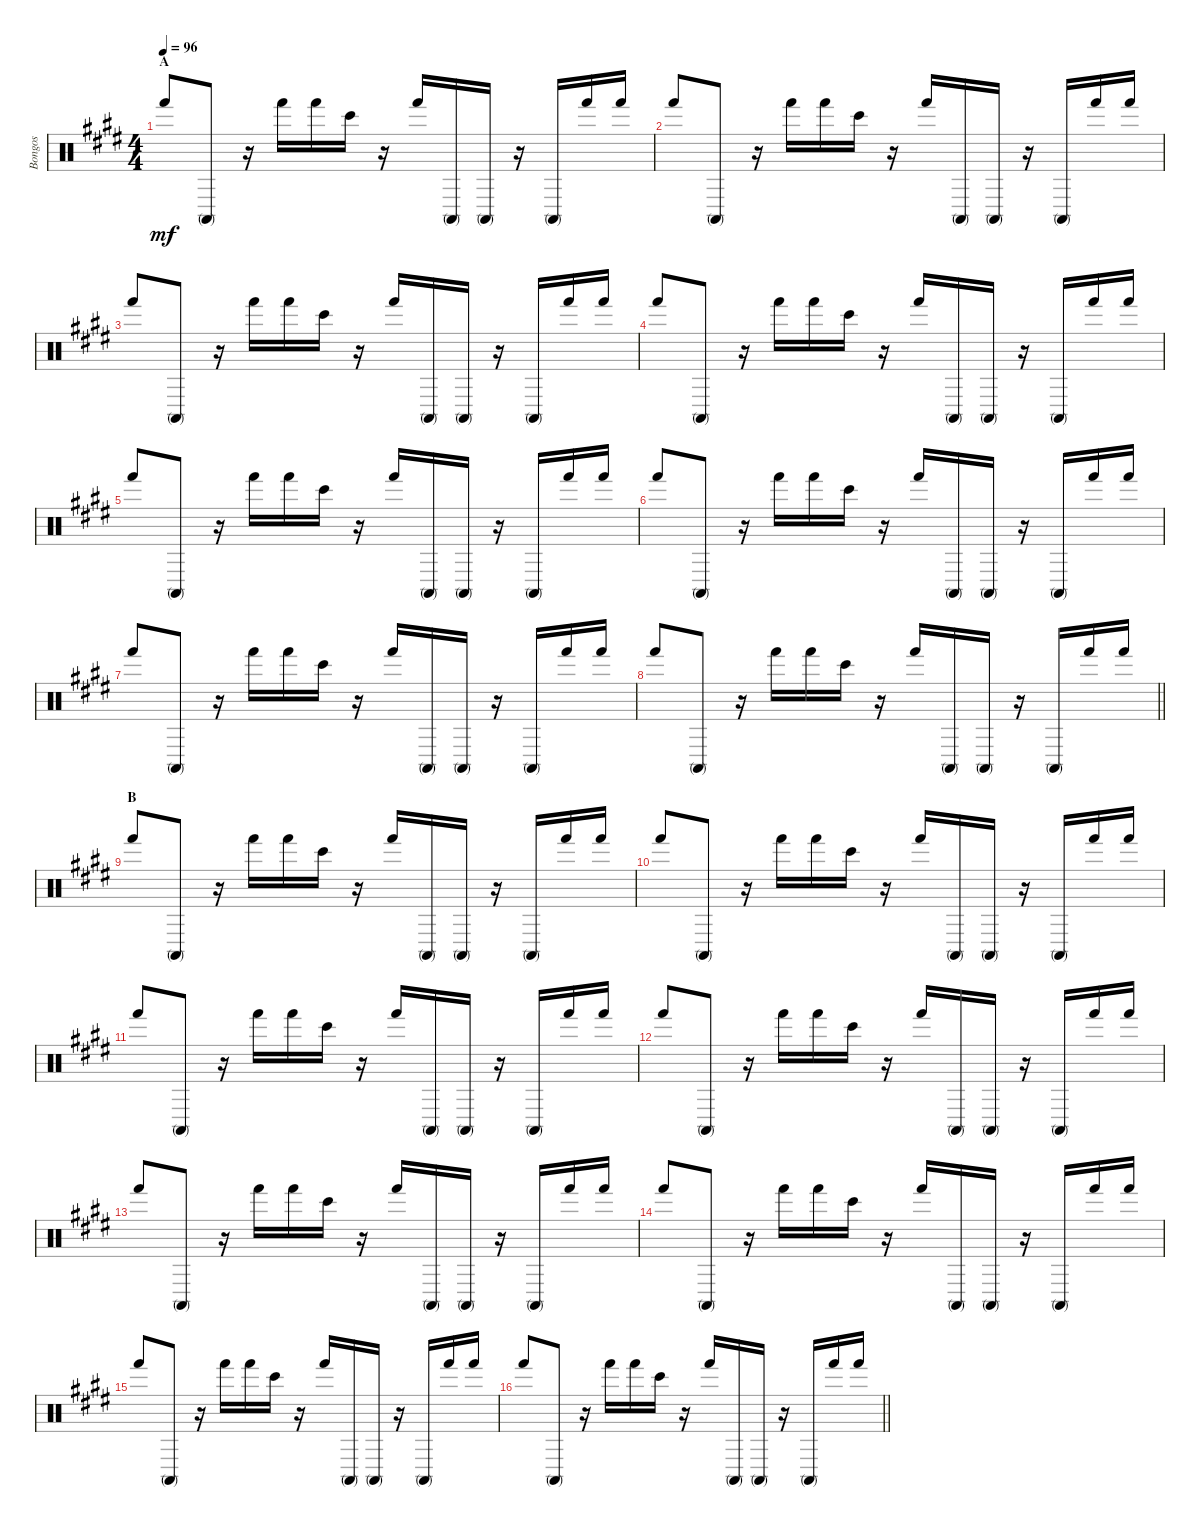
\track ("Bongos" "Bongos") {instrument percussion}
\staff {score}
\articulation defaults
\ts (4 4)
\section ("" "A")
\tempo 96
\clef neutral
\ks e "Hand (hit)".8{dy mf} "Conga high (mute)".8
r.16 "Hand (hit)".16 "Hand (hit)".16 "Bongo High (hit)".16 r.16 "Hand (hit)".16 "Conga high (mute)".16 "Conga high (mute)".16 r.16 "Conga high (mute)".16 "Hand (hit)".16 "Hand (hit)".16 |
"Hand (hit)".8 "Conga high (mute)".8 r.16 "Hand (hit)".16 "Hand (hit)".16 "Bongo High (hit)".16 r.16 "Hand (hit)".16 "Conga high (mute)".16 "Conga high (mute)".16 r.16 "Conga high (mute)".16 "Hand (hit)".16 "Hand (hit)".16 |
"Hand (hit)".8 "Conga high (mute)".8 r.16 "Hand (hit)".16 "Hand (hit)".16 "Bongo High (hit)".16 r.16 "Hand (hit)".16 "Conga high (mute)".16 "Conga high (mute)".16 r.16 "Conga high (mute)".16 "Hand (hit)".16 "Hand (hit)".16 |
"Hand (hit)".8 "Conga high (mute)".8 r.16 "Hand (hit)".16 "Hand (hit)".16 "Bongo High (hit)".16 r.16 "Hand (hit)".16 "Conga high (mute)".16 "Conga high (mute)".16 r.16 "Conga high (mute)".16 "Hand (hit)".16 "Hand (hit)".16 |
"Hand (hit)".8 "Conga high (mute)".8 r.16 "Hand (hit)".16 "Hand (hit)".16 "Bongo High (hit)".16 r.16 "Hand (hit)".16 "Conga high (mute)".16 "Conga high (mute)".16 r.16 "Conga high (mute)".16 "Hand (hit)".16 "Hand (hit)".16 |
"Hand (hit)".8 "Conga high (mute)".8 r.16 "Hand (hit)".16 "Hand (hit)".16 "Bongo High (hit)".16 r.16 "Hand (hit)".16 "Conga high (mute)".16 "Conga high (mute)".16 r.16 "Conga high (mute)".16 "Hand (hit)".16 "Hand (hit)".16 |
"Hand (hit)".8 "Conga high (mute)".8 r.16 "Hand (hit)".16 "Hand (hit)".16 "Bongo High (hit)".16 r.16 "Hand (hit)".16 "Conga high (mute)".16 "Conga high (mute)".16 r.16 "Conga high (mute)".16 "Hand (hit)".16 "Hand (hit)".16 |
\barLineRight lightlight "Hand (hit)".8 "Conga high (mute)".8
r.16 "Hand (hit)".16 "Hand (hit)".16 "Bongo High (hit)".16 r.16 "Hand (hit)".16 "Conga high (mute)".16 "Conga high (mute)".16 r.16 "Conga high (mute)".16 "Hand (hit)".16 "Hand (hit)".16 |
\section ("" "B")
"Hand (hit)".8 "Conga high (mute)".8 r.16 "Hand (hit)".16 "Hand (hit)".16 "Bongo High (hit)".16 r.16 "Hand (hit)".16 "Conga high (mute)".16 "Conga high (mute)".16 r.16 "Conga high (mute)".16 "Hand (hit)".16 "Hand (hit)".16 |
"Hand (hit)".8 "Conga high (mute)".8 r.16 "Hand (hit)".16 "Hand (hit)".16 "Bongo High (hit)".16 r.16 "Hand (hit)".16 "Conga high (mute)".16 "Conga high (mute)".16 r.16 "Conga high (mute)".16 "Hand (hit)".16 "Hand (hit)".16 |
"Hand (hit)".8 "Conga high (mute)".8 r.16 "Hand (hit)".16 "Hand (hit)".16 "Bongo High (hit)".16 r.16 "Hand (hit)".16 "Conga high (mute)".16 "Conga high (mute)".16 r.16 "Conga high (mute)".16 "Hand (hit)".16 "Hand (hit)".16 |
"Hand (hit)".8 "Conga high (mute)".8 r.16 "Hand (hit)".16 "Hand (hit)".16 "Bongo High (hit)".16 r.16 "Hand (hit)".16 "Conga high (mute)".16 "Conga high (mute)".16 r.16 "Conga high (mute)".16 "Hand (hit)".16 "Hand (hit)".16 |
"Hand (hit)".8 "Conga high (mute)".8 r.16 "Hand (hit)".16 "Hand (hit)".16 "Bongo High (hit)".16 r.16 "Hand (hit)".16 "Conga high (mute)".16 "Conga high (mute)".16 r.16 "Conga high (mute)".16 "Hand (hit)".16 "Hand (hit)".16 |
"Hand (hit)".8 "Conga high (mute)".8 r.16 "Hand (hit)".16 "Hand (hit)".16 "Bongo High (hit)".16 r.16 "Hand (hit)".16 "Conga high (mute)".16 "Conga high (mute)".16 r.16 "Conga high (mute)".16 "Hand (hit)".16 "Hand (hit)".16 |
"Hand (hit)".8 "Conga high (mute)".8 r.16 "Hand (hit)".16 "Hand (hit)".16 "Bongo High (hit)".16 r.16 "Hand (hit)".16 "Conga high (mute)".16 "Conga high (mute)".16 r.16 "Conga high (mute)".16 "Hand (hit)".16 "Hand (hit)".16 |
\barLineRight lightlight "Hand (hit)".8 "Conga high (mute)".8
r.16 "Hand (hit)".16 "Hand (hit)".16 "Bongo High (hit)".16 r.16 "Hand (hit)".16 "Conga high (mute)".16 "Conga high (mute)".16 r.16 "Conga high (mute)".16 "Hand (hit)".16 "Hand (hit)".16
